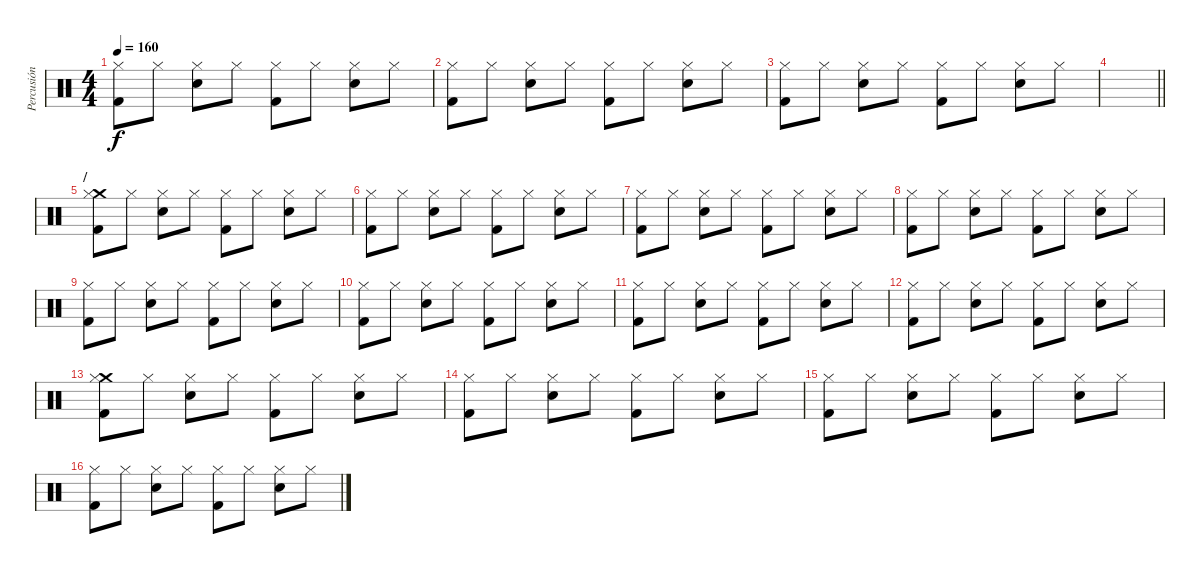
\track ("Percusión" "Percusión") {instrument percussion}
\staff {score}
\articulation defaults
\ts (4 4)
\tempo 160
\clef neutral
\ks c
("Hi-Hat (closed)" "Kick (hit) 2").8{dy f} "Hi-Hat (closed)".8 ("Hi-Hat (closed)" "Snare (hit) 2").8 "Hi-Hat (closed)".8 ("Hi-Hat (closed)" "Kick (hit) 2").8 "Hi-Hat (closed)".8 ("Hi-Hat (closed)" "Snare (hit) 2").8 "Hi-Hat (closed)".8 |
("Hi-Hat (closed)" "Kick (hit) 2").8 "Hi-Hat (closed)".8 ("Hi-Hat (closed)" "Snare (hit) 2").8 "Hi-Hat (closed)".8 ("Hi-Hat (closed)" "Kick (hit) 2").8 "Hi-Hat (closed)".8 ("Hi-Hat (closed)" "Snare (hit) 2").8 "Hi-Hat (closed)".8 |
("Hi-Hat (closed)" "Kick (hit) 2").8 "Hi-Hat (closed)".8 ("Hi-Hat (closed)" "Snare (hit) 2").8 "Hi-Hat (closed)".8 ("Hi-Hat (closed)" "Kick (hit) 2").8 "Hi-Hat (closed)".8 ("Hi-Hat (closed)" "Snare (hit) 2").8 "Hi-Hat (closed)".8 |
\barLineRight lightlight
|
\section ("" "/")
("Crash medium (hit)" "Hi-Hat (closed)" "Kick (hit) 2").8 "Hi-Hat (closed)".8 ("Hi-Hat (closed)" "Snare (hit) 2").8 "Hi-Hat (closed)".8 ("Hi-Hat (closed)" "Kick (hit) 2").8 "Hi-Hat (closed)".8 ("Hi-Hat (closed)" "Snare (hit) 2").8 "Hi-Hat (closed)".8 |
("Hi-Hat (closed)" "Kick (hit) 2").8 "Hi-Hat (closed)".8 ("Hi-Hat (closed)" "Snare (hit) 2").8 "Hi-Hat (closed)".8 ("Hi-Hat (closed)" "Kick (hit) 2").8 "Hi-Hat (closed)".8 ("Hi-Hat (closed)" "Snare (hit) 2").8 "Hi-Hat (closed)".8 |
("Hi-Hat (closed)" "Kick (hit) 2").8 "Hi-Hat (closed)".8 ("Hi-Hat (closed)" "Snare (hit) 2").8 "Hi-Hat (closed)".8 ("Hi-Hat (closed)" "Kick (hit) 2").8 "Hi-Hat (closed)".8 ("Hi-Hat (closed)" "Snare (hit) 2").8 "Hi-Hat (closed)".8 |
("Hi-Hat (closed)" "Kick (hit) 2").8 "Hi-Hat (closed)".8 ("Hi-Hat (closed)" "Snare (hit) 2").8 "Hi-Hat (closed)".8 ("Hi-Hat (closed)" "Kick (hit) 2").8 "Hi-Hat (closed)".8 ("Hi-Hat (closed)" "Snare (hit) 2").8 "Hi-Hat (closed)".8 |
("Hi-Hat (closed)" "Kick (hit) 2").8 "Hi-Hat (closed)".8 ("Hi-Hat (closed)" "Snare (hit) 2").8 "Hi-Hat (closed)".8 ("Hi-Hat (closed)" "Kick (hit) 2").8 "Hi-Hat (closed)".8 ("Hi-Hat (closed)" "Snare (hit) 2").8 "Hi-Hat (closed)".8 |
("Hi-Hat (closed)" "Kick (hit) 2").8 "Hi-Hat (closed)".8 ("Hi-Hat (closed)" "Snare (hit) 2").8 "Hi-Hat (closed)".8 ("Hi-Hat (closed)" "Kick (hit) 2").8 "Hi-Hat (closed)".8 ("Hi-Hat (closed)" "Snare (hit) 2").8 "Hi-Hat (closed)".8 |
("Hi-Hat (closed)" "Kick (hit) 2").8 "Hi-Hat (closed)".8 ("Hi-Hat (closed)" "Snare (hit) 2").8 "Hi-Hat (closed)".8 ("Hi-Hat (closed)" "Kick (hit) 2").8 "Hi-Hat (closed)".8 ("Hi-Hat (closed)" "Snare (hit) 2").8 "Hi-Hat (closed)".8 |
("Hi-Hat (closed)" "Kick (hit) 2").8 "Hi-Hat (closed)".8 ("Hi-Hat (closed)" "Snare (hit) 2").8 "Hi-Hat (closed)".8 ("Hi-Hat (closed)" "Kick (hit) 2").8 "Hi-Hat (closed)".8 ("Hi-Hat (closed)" "Snare (hit) 2").8 "Hi-Hat (closed)".8 |
("Crash medium (hit)" "Hi-Hat (closed)" "Kick (hit) 2").8 "Hi-Hat (closed)".8 ("Hi-Hat (closed)" "Snare (hit) 2").8 "Hi-Hat (closed)".8 ("Hi-Hat (closed)" "Kick (hit) 2").8 "Hi-Hat (closed)".8 ("Hi-Hat (closed)" "Snare (hit) 2").8 "Hi-Hat (closed)".8 |
("Hi-Hat (closed)" "Kick (hit) 2").8 "Hi-Hat (closed)".8 ("Hi-Hat (closed)" "Snare (hit) 2").8 "Hi-Hat (closed)".8 ("Hi-Hat (closed)" "Kick (hit) 2").8 "Hi-Hat (closed)".8 ("Hi-Hat (closed)" "Snare (hit) 2").8 "Hi-Hat (closed)".8 |
("Hi-Hat (closed)" "Kick (hit) 2").8 "Hi-Hat (closed)".8 ("Hi-Hat (closed)" "Snare (hit) 2").8 "Hi-Hat (closed)".8 ("Hi-Hat (closed)" "Kick (hit) 2").8 "Hi-Hat (closed)".8 ("Hi-Hat (closed)" "Snare (hit) 2").8 "Hi-Hat (closed)".8 |
("Hi-Hat (closed)" "Kick (hit) 2").8 "Hi-Hat (closed)".8 ("Hi-Hat (closed)" "Snare (hit) 2").8 "Hi-Hat (closed)".8 ("Hi-Hat (closed)" "Kick (hit) 2").8 "Hi-Hat (closed)".8 ("Hi-Hat (closed)" "Snare (hit) 2").8 "Hi-Hat (closed)".8
